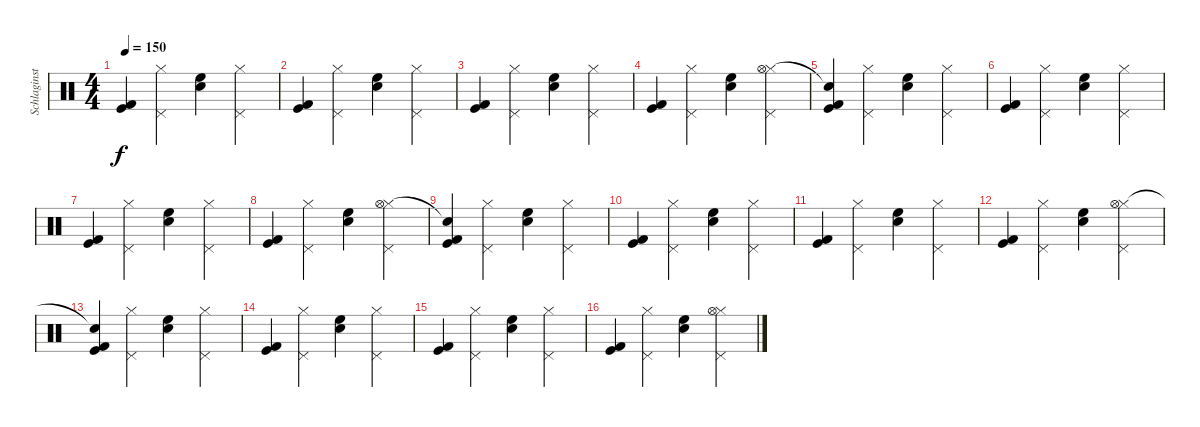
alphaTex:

\track ("Schlaginstrumente - Auswahl" "Schlaginst") {instrument percussion}
\staff {score}
\articulation defaults
\ts (4 4)
\tempo 150
\clef neutral
\ks c
("Kick (hit) 2" "Kick (hit)").4{dy f} ("Pedal Hi-Hat (hit)" "Hi-Hat (closed)").4 ("High Floor Tom (hit)" "Snare (hit) 2").4 ("Pedal Hi-Hat (hit)" "Hi-Hat (closed)").4 |
("Kick (hit) 2" "Kick (hit)").4 ("Pedal Hi-Hat (hit)" "Hi-Hat (closed)").4 ("High Floor Tom (hit)" "Snare (hit) 2").4 ("Pedal Hi-Hat (hit)" "Hi-Hat (closed)").4 |
("Kick (hit) 2" "Kick (hit)").4 ("Pedal Hi-Hat (hit)" "Hi-Hat (closed)").4 ("High Floor Tom (hit)" "Snare (hit) 2").4 ("Pedal Hi-Hat (hit)" "Hi-Hat (closed)").4 |
("Kick (hit) 2" "Kick (hit)").4 ("Pedal Hi-Hat (hit)" "Hi-Hat (closed)").4 ("High Floor Tom (hit)" "Snare (hit) 2").4 ("Pedal Hi-Hat (hit)" "Hi-Hat (closed)" "Hi-Hat (open)").4 |
("Kick (hit) 2" "Kick (hit)" "Snare (hit)"{t}).4 ("Pedal Hi-Hat (hit)" "Hi-Hat (closed)").4 ("High Floor Tom (hit)" "Snare (hit) 2").4 ("Pedal Hi-Hat (hit)" "Hi-Hat (closed)").4 |
("Kick (hit) 2" "Kick (hit)").4 ("Pedal Hi-Hat (hit)" "Hi-Hat (closed)").4 ("High Floor Tom (hit)" "Snare (hit) 2").4 ("Pedal Hi-Hat (hit)" "Hi-Hat (closed)").4 |
("Kick (hit) 2" "Kick (hit)").4 ("Pedal Hi-Hat (hit)" "Hi-Hat (closed)").4 ("High Floor Tom (hit)" "Snare (hit) 2").4 ("Pedal Hi-Hat (hit)" "Hi-Hat (closed)").4 |
("Kick (hit) 2" "Kick (hit)").4 ("Pedal Hi-Hat (hit)" "Hi-Hat (closed)").4 ("High Floor Tom (hit)" "Snare (hit) 2").4 ("Pedal Hi-Hat (hit)" "Hi-Hat (closed)" "Hi-Hat (open)").4 |
("Kick (hit) 2" "Kick (hit)" "Snare (hit)"{t}).4 ("Pedal Hi-Hat (hit)" "Hi-Hat (closed)").4 ("High Floor Tom (hit)" "Snare (hit) 2").4 ("Pedal Hi-Hat (hit)" "Hi-Hat (closed)").4 |
("Kick (hit) 2" "Kick (hit)").4 ("Pedal Hi-Hat (hit)" "Hi-Hat (closed)").4 ("High Floor Tom (hit)" "Snare (hit) 2").4 ("Pedal Hi-Hat (hit)" "Hi-Hat (closed)").4 |
("Kick (hit) 2" "Kick (hit)").4 ("Pedal Hi-Hat (hit)" "Hi-Hat (closed)").4 ("High Floor Tom (hit)" "Snare (hit) 2").4 ("Pedal Hi-Hat (hit)" "Hi-Hat (closed)").4 |
("Kick (hit) 2" "Kick (hit)").4 ("Pedal Hi-Hat (hit)" "Hi-Hat (closed)").4 ("High Floor Tom (hit)" "Snare (hit) 2").4 ("Pedal Hi-Hat (hit)" "Hi-Hat (closed)" "Hi-Hat (open)").4 |
("Kick (hit) 2" "Kick (hit)" "Snare (hit)"{t}).4 ("Pedal Hi-Hat (hit)" "Hi-Hat (closed)").4 ("High Floor Tom (hit)" "Snare (hit) 2").4 ("Pedal Hi-Hat (hit)" "Hi-Hat (closed)").4 |
("Kick (hit) 2" "Kick (hit)").4 ("Pedal Hi-Hat (hit)" "Hi-Hat (closed)").4 ("High Floor Tom (hit)" "Snare (hit) 2").4 ("Pedal Hi-Hat (hit)" "Hi-Hat (closed)").4 |
("Kick (hit) 2" "Kick (hit)").4 ("Pedal Hi-Hat (hit)" "Hi-Hat (closed)").4 ("High Floor Tom (hit)" "Snare (hit) 2").4 ("Pedal Hi-Hat (hit)" "Hi-Hat (closed)").4 |
("Kick (hit) 2" "Kick (hit)").4 ("Pedal Hi-Hat (hit)" "Hi-Hat (closed)").4 ("High Floor Tom (hit)" "Snare (hit) 2").4 ("Pedal Hi-Hat (hit)" "Hi-Hat (closed)" "Hi-Hat (open)").4
